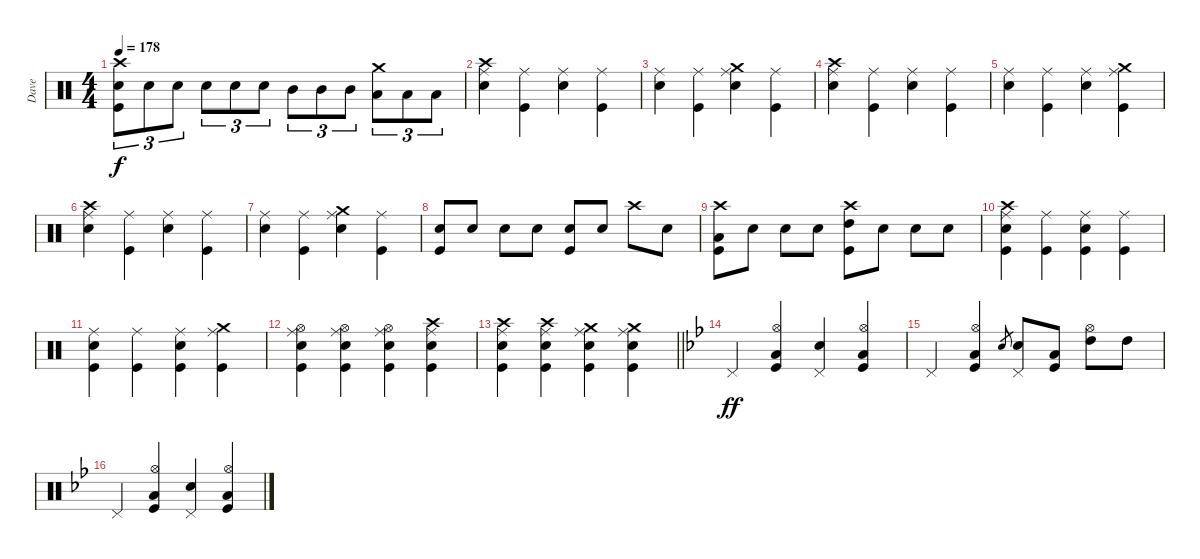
\track ("Dave" "Dave") {instrument percussion}
\staff {score}
\articulation defaults
\ts (4 4)
\tempo 178
\clef neutral
\ks c
("Crash high (hit)" "Snare (hit) 2" "Kick (hit)").8{tu (3 2) dy f} "Snare (hit) 2".8{tu (3 2)} "Snare (hit) 2".8{tu (3 2)} "Snare (hit) 2".8{tu (3 2)} "Snare (hit) 2".8{tu (3 2)} "Snare (hit) 2".8{tu (3 2)} "Mid Tom (hit)".8{tu (3 2)} "Mid Tom (hit)".8{tu (3 2)} "Mid Tom (hit)".8{tu (3 2)} ("Crash medium (hit)" "Low Tom (hit)").8{tu (3 2)} "Low Tom (hit)".8{tu (3 2)} "Low Tom (hit)".8{tu (3 2)} |
("Crash high (hit)" "Ride (middle)" "Snare (hit) 2").4 ("Ride (middle)" "Kick (hit)").4 ("Ride (middle)" "Snare (hit) 2").4 ("Ride (middle)" "Kick (hit)").4 |
("Ride (middle)" "Snare (hit) 2").4 ("Ride (middle)" "Kick (hit)").4 ("Crash medium (hit)" "Ride (middle)" "Snare (hit) 2").4 ("Ride (middle)" "Kick (hit)").4 |
("Crash high (hit)" "Ride (middle)" "Snare (hit) 2").4 ("Ride (middle)" "Kick (hit)").4 ("Ride (middle)" "Snare (hit) 2").4 ("Ride (middle)" "Kick (hit)").4 |
("Ride (middle)" "Snare (hit) 2").4 ("Ride (middle)" "Kick (hit)").4 ("Ride (middle)" "Snare (hit) 2").4 ("Crash medium (hit)" "Ride (middle)" "Kick (hit)").4 |
("Crash high (hit)" "Ride (middle)" "Snare (hit) 2").4 ("Ride (middle)" "Kick (hit)").4 ("Ride (middle)" "Snare (hit) 2").4 ("Ride (middle)" "Kick (hit)").4 |
("Ride (middle)" "Snare (hit) 2").4 ("Ride (middle)" "Kick (hit)").4 ("Crash medium (hit)" "Ride (middle)" "Snare (hit) 2").4 ("Ride (middle)" "Kick (hit)").4 |
("Snare (hit) 2" "Kick (hit)").8 "Snare (hit) 2".8 "Snare (hit) 2".8 "Snare (hit) 2".8 ("Snare (hit) 2" "Kick (hit)").8 "Snare (hit) 2".8 "Crash high (hit)".8 "Snare (hit) 2".8 |
("Crash high (hit)" "Low Tom (hit)" "Kick (hit)").8 "Snare (hit) 2".8 "Snare (hit) 2".8 "Snare (hit) 2".8 ("Crash high (hit)" "High Tom (hit)" "Kick (hit)").8 "Snare (hit) 2".8 "Snare (hit) 2".8 "Snare (hit) 2".8 |
("Crash high (hit)" "Ride (middle)" "Snare (hit) 2" "Kick (hit)").4 ("Ride (middle)" "Kick (hit)").4 ("Ride (middle)" "Snare (hit) 2" "Kick (hit)").4 ("Ride (middle)" "Kick (hit)").4 |
("Ride (middle)" "Snare (hit) 2" "Kick (hit)").4 ("Ride (middle)" "Kick (hit)").4 ("Ride (middle)" "Snare (hit) 2" "Kick (hit)").4 ("Crash medium (hit)" "Ride (middle)" "Kick (hit)").4 |
("Hi-Hat (open)" "Ride (middle)" "Snare (hit) 2" "Kick (hit)").4 ("Hi-Hat (open)" "Ride (middle)" "Snare (hit) 2" "Kick (hit)").4 ("Hi-Hat (open)" "Ride (middle)" "Snare (hit) 2" "Kick (hit)").4 ("Crash high (hit)" "Ride (middle)" "Snare (hit) 2" "Kick (hit)").4 |
\barLineRight lightlight
("Crash high (hit)" "Ride (middle)" "Snare (hit) 2" "Kick (hit)").4 ("Crash high (hit)" "Ride (middle)" "Snare (hit) 2" "Kick (hit)").4 ("Crash medium (hit)" "Ride (middle)" "Snare (hit) 2" "Kick (hit)").4 ("Crash medium (hit)" "Ride (middle)" "Snare (hit) 2" "Kick (hit)").4 |
\ks gminor "Pedal Hi-Hat (hit)".4{dy ff}
("Hi-Hat (open)" "Low Floor Tom (hit)" "Kick (hit)").4 ("Pedal Hi-Hat (hit)" "Snare (hit) 2").4 ("Hi-Hat (open)" "Low Floor Tom (hit)" "Kick (hit)").4 |
"Pedal Hi-Hat (hit)".4 ("Hi-Hat (open)" "Low Floor Tom (hit)" "Kick (hit)").4 "Snare (hit) 2".8{gr} ("Pedal Hi-Hat (hit)" "Snare (hit) 2").8 ("Low Floor Tom (hit)" "Kick (hit)").8 ("High Tom (hit)" "Hi-Hat (open)").8 "High Tom (hit)".8 |
"Pedal Hi-Hat (hit)".4 ("Hi-Hat (open)" "Low Floor Tom (hit)" "Kick (hit)").4 ("Pedal Hi-Hat (hit)" "Snare (hit) 2").4 ("Hi-Hat (open)" "Low Floor Tom (hit)" "Kick (hit)").4
